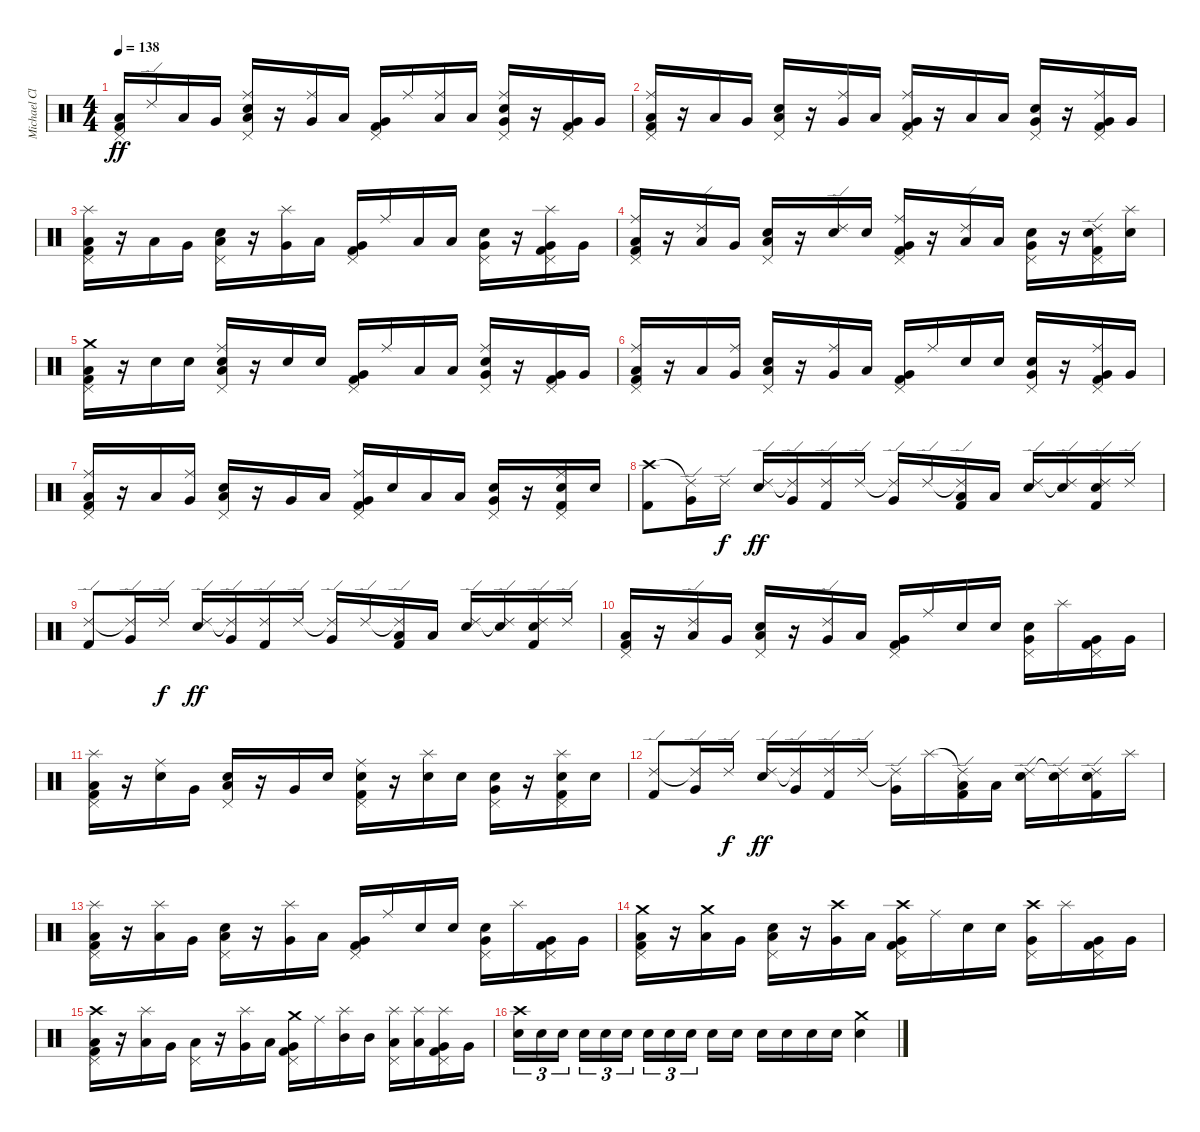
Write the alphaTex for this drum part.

\track ("Michael Clarke" "Michael Cl") {instrument percussion}
\staff {score}
\articulation defaults
\ts (4 4)
\tempo 138
\clef neutral
\ks c
("Pedal Hi-Hat (hit)" "Low Floor Tom (hit)" "Kick (hit) 2").16{dy ff} "Ride (edge) 2".16 "Low Floor Tom (hit)".16 "Very Low Tom (hit)".16 ("Ride (middle)" "Pedal Hi-Hat (hit)" "Low Floor Tom (hit)" "Snare (hit) 2").16 r.16 ("Ride (middle)" "Very Low Tom (hit)").16 "Low Floor Tom (hit)".16 ("Pedal Hi-Hat (hit)" "Very Low Tom (hit)" "Kick (hit) 2").16 "Ride (middle)".16 ("Ride (middle)" "Low Floor Tom (hit)").16 "Low Floor Tom (hit)".16 ("Ride (middle)" "Pedal Hi-Hat (hit)" "Very Low Tom (hit)" "Snare (hit) 2").16 r.16 ("Pedal Hi-Hat (hit)" "Very Low Tom (hit)" "Kick (hit) 2").16 "Very Low Tom (hit)".16 |
("Ride (middle)" "Pedal Hi-Hat (hit)" "Low Floor Tom (hit)" "Kick (hit) 2").16 r.16 "Low Floor Tom (hit)".16 "Very Low Tom (hit)".16 ("Pedal Hi-Hat (hit)" "Low Floor Tom (hit)" "Snare (hit) 2").16 r.16 ("Ride (middle)" "Very Low Tom (hit)").16 "Low Floor Tom (hit)".16 ("Ride (middle)" "Pedal Hi-Hat (hit)" "Very Low Tom (hit)" "Kick (hit) 2").16 r.16 "Low Floor Tom (hit)".16 "Low Floor Tom (hit)".16 ("Pedal Hi-Hat (hit)" "Very Low Tom (hit)" "Snare (hit) 2").16 r.16 ("Ride (middle)" "Pedal Hi-Hat (hit)" "Very Low Tom (hit)" "Kick (hit) 2").16 "Very Low Tom (hit)".16 |
("Splash (hit)" "Pedal Hi-Hat (hit)" "Low Floor Tom (hit)" "Kick (hit) 2").16 r.16 "Low Floor Tom (hit)".16 "Very Low Tom (hit)".16 ("Pedal Hi-Hat (hit)" "Low Floor Tom (hit)" "Snare (hit) 2").16 r.16 ("Splash (hit)" "Very Low Tom (hit)").16 "Low Floor Tom (hit)".16 ("Pedal Hi-Hat (hit)" "Very Low Tom (hit)" "Kick (hit) 2").16 "Ride (middle)".16 "Low Floor Tom (hit)".16 "Low Floor Tom (hit)".16 ("Pedal Hi-Hat (hit)" "Very Low Tom (hit)" "Snare (hit) 2").16 r.16 ("Splash (hit)" "Pedal Hi-Hat (hit)" "Very Low Tom (hit)" "Kick (hit) 2").16 "Very Low Tom (hit)".16 |
("Ride (middle)" "Pedal Hi-Hat (hit)" "Low Floor Tom (hit)" "Kick (hit) 2").16 r.16 ("Ride (edge) 2" "Low Floor Tom (hit)").16 "Very Low Tom (hit)".16 ("Pedal Hi-Hat (hit)" "Low Floor Tom (hit)" "Snare (hit) 2").16 r.16 ("Ride (edge) 2" "Snare (hit) 2").16 "Snare (hit) 2".16 ("Ride (middle)" "Pedal Hi-Hat (hit)" "Very Low Tom (hit)" "Kick (hit) 2").16 r.16 ("Ride (edge) 2" "Low Floor Tom (hit)").16 "Low Floor Tom (hit)".16 ("Pedal Hi-Hat (hit)" "Very Low Tom (hit)" "Snare (hit) 2").16 r.16 ("Ride (edge) 2" "Pedal Hi-Hat (hit)" "Snare (hit) 2" "Kick (hit) 2").16 ("Splash (hit)" "Snare (hit) 2").16 |
("Crash medium (hit)" "Pedal Hi-Hat (hit)" "Low Floor Tom (hit)" "Kick (hit) 2").16 r.16 "Snare (hit) 2".16 "Snare (hit) 2".16 ("Ride (middle)" "Pedal Hi-Hat (hit)" "Low Floor Tom (hit)" "Snare (hit) 2").16 r.16 "Snare (hit) 2".16 "Snare (hit) 2".16 ("Pedal Hi-Hat (hit)" "Very Low Tom (hit)" "Kick (hit) 2").16 "Ride (middle)".16 "Low Floor Tom (hit)".16 "Low Floor Tom (hit)".16 ("Ride (middle)" "Pedal Hi-Hat (hit)" "Very Low Tom (hit)" "Snare (hit) 2").16 r.16 ("Pedal Hi-Hat (hit)" "Very Low Tom (hit)" "Kick (hit) 2").16 "Very Low Tom (hit)".16 |
("Ride (middle)" "Pedal Hi-Hat (hit)" "Low Floor Tom (hit)" "Kick (hit) 2").16 r.16 "Low Floor Tom (hit)".16 ("Ride (middle)" "Very Low Tom (hit)").16 ("Pedal Hi-Hat (hit)" "Low Floor Tom (hit)" "Snare (hit) 2").16 r.16 ("Ride (middle)" "Very Low Tom (hit)").16 "Low Floor Tom (hit)".16 ("Pedal Hi-Hat (hit)" "Very Low Tom (hit)" "Kick (hit) 2").16 "Ride (middle)".16 "Snare (hit) 2".16 "Snare (hit) 2".16 ("Pedal Hi-Hat (hit)" "Very Low Tom (hit)" "Snare (hit) 2").16 r.16 ("Ride (middle)" "Pedal Hi-Hat (hit)" "Very Low Tom (hit)" "Kick (hit) 2").16 "Very Low Tom (hit)".16 |
("Ride (middle)" "Pedal Hi-Hat (hit)" "Low Floor Tom (hit)" "Kick (hit) 2").16 r.16 "Low Floor Tom (hit)".16 ("Ride (middle)" "Very Low Tom (hit)").16 ("Pedal Hi-Hat (hit)" "Low Floor Tom (hit)" "Snare (hit) 2").16 r.16 "Very Low Tom (hit)".16 "Low Floor Tom (hit)".16 ("Ride (middle)" "Pedal Hi-Hat (hit)" "Very Low Tom (hit)" "Kick (hit) 2").16 "Snare (hit) 2".16 "Low Floor Tom (hit)".16 "Low Floor Tom (hit)".16 ("Pedal Hi-Hat (hit)" "Very Low Tom (hit)" "Snare (hit) 2").16 r.16 ("Ride (middle)" "Pedal Hi-Hat (hit)" "Snare (hit) 2" "Kick (hit) 2").16 "Snare (hit) 2".16 |
("Crash high (hit)" "Kick (hit) 2").8 ("Ride (edge) 2"{t} "Very Low Tom (hit)").16 "Ride (edge) 2".16{dy f} ("Ride (edge) 2" "Snare (hit) 2").16{dy ff} ("Ride (edge) 2"{t} "Very Low Tom (hit)").16 ("Ride (edge) 2" "Kick (hit) 2").16 "Ride (edge) 2".16 ("Ride (edge) 2"{t} "Very Low Tom (hit)").16 "Ride (edge) 2".16 ("Ride (edge) 2"{t} "Low Tom (hit)" "Kick (hit) 2").16 "Low Tom (hit)".16 ("Ride (edge) 2" "Snare (hit) 2").16 ("Ride (edge) 2"{t} "Snare (hit) 2").16 ("Ride (edge) 2" "Snare (hit) 2" "Kick (hit) 2").16 "Ride (edge) 2".16 |
("Ride (edge) 2" "Kick (hit) 2").8 ("Ride (edge) 2"{t} "Very Low Tom (hit)").16 "Ride (edge) 2".16{dy f} ("Ride (edge) 2" "Snare (hit) 2").16{dy ff} ("Ride (edge) 2"{t} "Very Low Tom (hit)").16 ("Ride (edge) 2" "Kick (hit) 2").16 "Ride (edge) 2".16 ("Ride (edge) 2"{t} "Very Low Tom (hit)").16 "Ride (edge) 2".16 ("Ride (edge) 2"{t} "Low Tom (hit)" "Kick (hit) 2").16 "Low Tom (hit)".16 ("Ride (edge) 2" "Snare (hit) 2").16 ("Ride (edge) 2"{t} "Snare (hit) 2").16 ("Ride (edge) 2" "Snare (hit) 2" "Kick (hit) 2").16 "Ride (edge) 2".16 |
("Pedal Hi-Hat (hit)" "Low Floor Tom (hit)" "Kick (hit) 2").16 r.16 ("Ride (edge) 2" "Low Floor Tom (hit)").16 "Very Low Tom (hit)".16 ("Pedal Hi-Hat (hit)" "Low Floor Tom (hit)" "Snare (hit) 2").16 r.16 ("Ride (edge) 2" "Very Low Tom (hit)").16 "Low Floor Tom (hit)".16 ("Pedal Hi-Hat (hit)" "Very Low Tom (hit)" "Kick (hit) 2").16 "Ride (middle)".16 "Snare (hit) 2".16 "Snare (hit) 2".16 ("Pedal Hi-Hat (hit)" "Very Low Tom (hit)" "Snare (hit) 2").16 "Splash (hit)".16 ("Pedal Hi-Hat (hit)" "Very Low Tom (hit)" "Kick (hit) 2").16 "Very Low Tom (hit)".16 |
("Splash (hit)" "Pedal Hi-Hat (hit)" "Low Floor Tom (hit)" "Kick (hit) 2").16 r.16 ("Ride (middle)" "Snare (hit) 2").16 "Very Low Tom (hit)".16 ("Pedal Hi-Hat (hit)" "Low Floor Tom (hit)" "Snare (hit) 2").16 r.16 "Very Low Tom (hit)".16 "Snare (hit) 2".16 ("Ride (middle)" "Pedal Hi-Hat (hit)" "Snare (hit) 2" "Kick (hit) 2").16 r.16 ("Splash (hit)" "Snare (hit) 2").16 "Snare (hit) 2".16 ("Pedal Hi-Hat (hit)" "Very Low Tom (hit)" "Snare (hit) 2").16 r.16 ("Splash (hit)" "Pedal Hi-Hat (hit)" "Snare (hit) 2" "Kick (hit) 2").16 "Snare (hit) 2".16 |
("Ride (edge) 2" "Kick (hit) 2").8 ("Ride (edge) 2"{t} "Very Low Tom (hit)").16 "Ride (edge) 2".16{dy f} ("Ride (edge) 2" "Snare (hit) 2").16{dy ff} ("Ride (edge) 2"{t} "Very Low Tom (hit)").16 ("Ride (edge) 2" "Kick (hit) 2").16 "Ride (edge) 2".16 ("Ride (edge) 2"{t} "Very Low Tom (hit)").16 "Splash (hit)".16 ("Ride (edge) 2"{t} "Low Tom (hit)" "Kick (hit) 2").16 "Low Tom (hit)".16 ("Ride (edge) 2" "Snare (hit) 2").16 ("Ride (edge) 2"{t} "Snare (hit) 2").16 ("Ride (edge) 2" "Snare (hit) 2" "Kick (hit) 2").16 "Splash (hit)".16 |
("Splash (hit)" "Pedal Hi-Hat (hit)" "Low Floor Tom (hit)" "Kick (hit) 2").16 r.16 ("Splash (hit)" "Low Floor Tom (hit)").16 "Very Low Tom (hit)".16 ("Pedal Hi-Hat (hit)" "Low Floor Tom (hit)" "Snare (hit) 2").16 r.16 ("Splash (hit)" "Very Low Tom (hit)").16 "Low Floor Tom (hit)".16 ("Pedal Hi-Hat (hit)" "Very Low Tom (hit)" "Kick (hit) 2").16 "Ride (middle)".16 "Snare (hit) 2".16 "Snare (hit) 2".16 ("Pedal Hi-Hat (hit)" "Very Low Tom (hit)" "Snare (hit) 2").16 "Splash (hit)".16 ("Pedal Hi-Hat (hit)" "Very Low Tom (hit)" "Kick (hit) 2").16 "Very Low Tom (hit)".16 |
("Crash medium (hit)" "Pedal Hi-Hat (hit)" "Low Floor Tom (hit)" "Kick (hit) 2").16 r.16 ("Crash medium (hit)" "Low Floor Tom (hit)").16 "Very Low Tom (hit)".16 ("Pedal Hi-Hat (hit)" "Low Floor Tom (hit)" "Snare (hit) 2").16 r.16 ("Crash high (hit)" "Very Low Tom (hit)").16 "Low Floor Tom (hit)".16 ("Crash high (hit)" "Pedal Hi-Hat (hit)" "Very Low Tom (hit)" "Kick (hit) 2").16 "Ride (middle)".16 "Snare (hit) 2".16 "Snare (hit) 2".16 ("Crash high (hit)" "Pedal Hi-Hat (hit)" "Very Low Tom (hit)").16 "Splash (hit)".16 ("Pedal Hi-Hat (hit)" "Very Low Tom (hit)" "Kick (hit) 2").16 "Very Low Tom (hit)".16 |
("Crash high (hit)" "Pedal Hi-Hat (hit)" "Low Floor Tom (hit)" "Kick (hit) 2").16 r.16 ("Splash (hit)" "Low Floor Tom (hit)").16 "Very Low Tom (hit)".16 ("Pedal Hi-Hat (hit)" "Low Floor Tom (hit)").16 r.16 ("Splash (hit)" "Very Low Tom (hit)").16 "Low Floor Tom (hit)".16 ("Crash medium (hit)" "Pedal Hi-Hat (hit)" "Very Low Tom (hit)" "Kick (hit) 2").16 "Ride (middle)".16 ("Splash (hit)" "Mid Tom (hit)").16 "Mid Tom (hit)".16 ("Splash (hit)" "Pedal Hi-Hat (hit)" "Low Tom (hit)").16 ("Splash (hit)" "Low Tom (hit)").16 ("Splash (hit)" "Pedal Hi-Hat (hit)" "Very Low Tom (hit)" "Kick (hit) 2").16 "Very Low Tom (hit)".16 |
("Crash high (hit)" "Snare (hit) 2").16{tu (3 2)} "Snare (hit) 2".16{tu (3 2)} "Snare (hit) 2".16{tu (3 2) beam splitsecondary} "Snare (hit) 2".16{tu (3 2)} "Snare (hit) 2".16{tu (3 2)} "Snare (hit) 2".16{tu (3 2)} "Snare (hit) 2".16{tu (3 2)} "Snare (hit) 2".16{tu (3 2)} "Snare (hit) 2".16{tu (3 2) beam splitsecondary} "Snare (hit) 2".16 "Snare (hit) 2".16 "Snare (hit) 2".16 "Snare (hit) 2".16 "Snare (hit) 2".16 "Snare (hit) 2".16 ("Crash medium (hit)" "Snare (hit) 2").4
